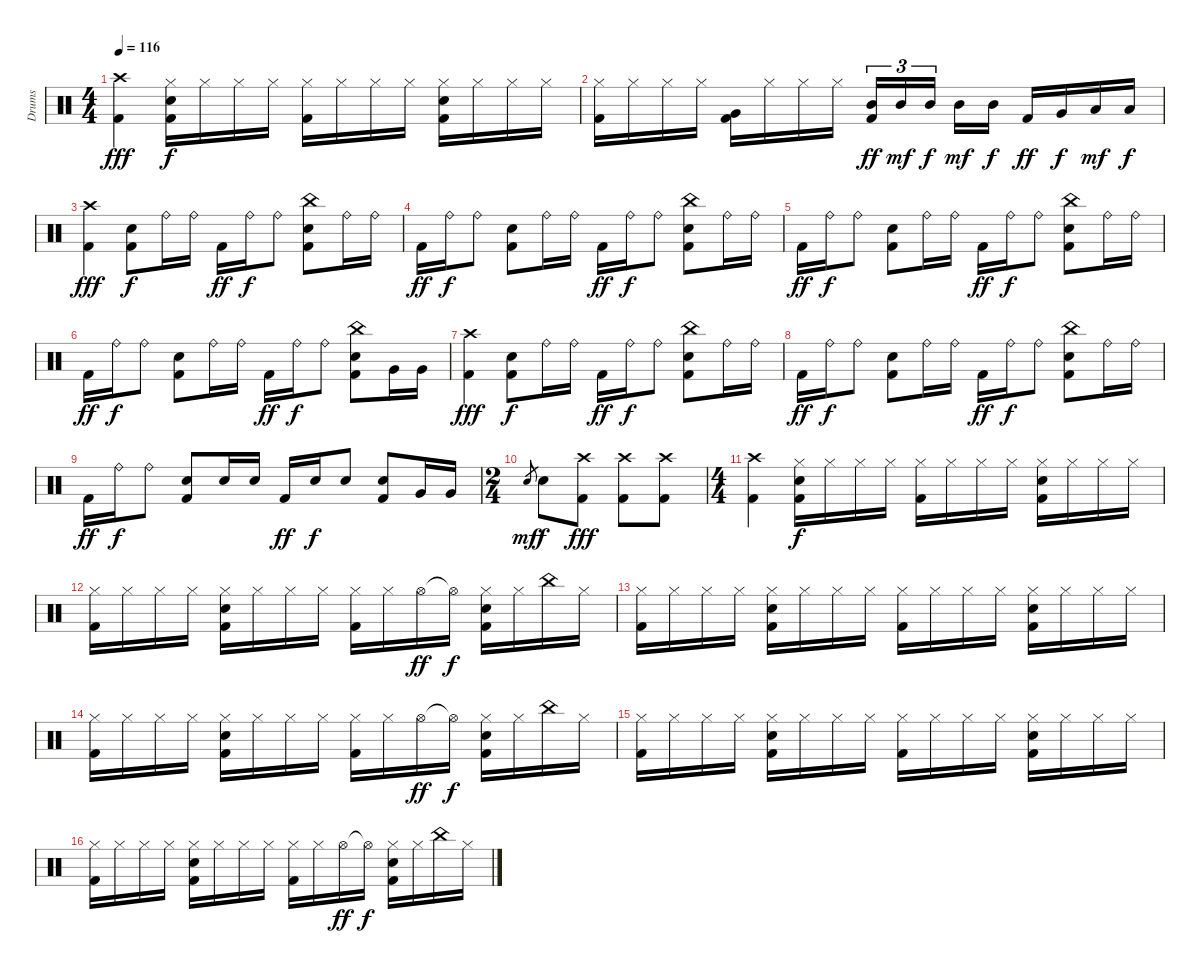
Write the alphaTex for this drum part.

\track ("Drums" "Drums") {instrument percussion}
\staff {score}
\articulation defaults
\ts (4 4)
\tempo 116
\clef neutral
\ks c
("Crash high (hit)" "Kick (hit) 2").4{dy fff} ("Hi-Hat (closed)" "Snare (hit) 2" "Kick (hit) 2").16{dy f} "Hi-Hat (closed)".16 "Hi-Hat (closed)".16 "Hi-Hat (closed)".16 ("Hi-Hat (closed)" "Kick (hit) 2").16 "Hi-Hat (closed)".16 "Hi-Hat (closed)".16 "Hi-Hat (closed)".16 ("Hi-Hat (closed)" "Snare (hit) 2" "Kick (hit) 2").16 "Hi-Hat (closed)".16 "Hi-Hat (closed)".16 "Hi-Hat (closed)".16 |
("Hi-Hat (closed)" "Kick (hit) 2").16 "Hi-Hat (closed)".16 "Hi-Hat (closed)".16 "Hi-Hat (closed)".16 ("Very Low Tom (hit)" "Kick (hit) 2").16 "Hi-Hat (closed)".16 "Hi-Hat (closed)".16 "Hi-Hat (closed)".16 ("Mid Tom (hit)" "Kick (hit) 2").16{tu (3 2) dy ff} "Mid Tom (hit)".16{tu (3 2) dy mf} "Mid Tom (hit)".16{tu (3 2) dy f} "Mid Tom (hit)".16{dy mf} "Mid Tom (hit)".16{dy f} "Kick (hit) 2".16{dy ff} "Very Low Tom (hit)".16{dy f} "Low Floor Tom (hit)".16{dy mf} "Low Floor Tom (hit)".16{dy f} |
("Crash high (hit)" "Kick (hit) 2").4{dy fff} ("Snare (hit) 2" "Kick (hit) 2").8{dy f} "Ride (bell)".16 "Ride (bell)".16 "Kick (hit) 2".16{dy ff} "Ride (bell)".16{dy f} "Ride (bell)".8 ("China (hit)" "Snare (hit) 2" "Kick (hit) 2").8 "Ride (bell)".16 "Ride (bell)".16 |
"Kick (hit) 2".16{dy ff} "Ride (bell)".16{dy f} "Ride (bell)".8 ("Snare (hit) 2" "Kick (hit) 2").8 "Ride (bell)".16 "Ride (bell)".16 "Kick (hit) 2".16{dy ff} "Ride (bell)".16{dy f} "Ride (bell)".8 ("China (hit)" "Snare (hit) 2" "Kick (hit) 2").8 "Ride (bell)".16 "Ride (bell)".16 |
"Kick (hit) 2".16{dy ff} "Ride (bell)".16{dy f} "Ride (bell)".8 ("Snare (hit) 2" "Kick (hit) 2").8 "Ride (bell)".16 "Ride (bell)".16 "Kick (hit) 2".16{dy ff} "Ride (bell)".16{dy f} "Ride (bell)".8 ("China (hit)" "Snare (hit) 2" "Kick (hit) 2").8 "Ride (bell)".16 "Ride (bell)".16 |
"Kick (hit) 2".16{dy ff} "Ride (bell)".16{dy f} "Ride (bell)".8 ("Snare (hit) 2" "Kick (hit) 2").8 "Ride (bell)".16 "Ride (bell)".16 "Kick (hit) 2".16{dy ff} "Ride (bell)".16{dy f} "Ride (bell)".8 ("China (hit)" "Snare (hit) 2" "Kick (hit) 2").8 "Very Low Tom (hit)".16 "Very Low Tom (hit)".16 |
("Crash high (hit)" "Kick (hit) 2").4{dy fff} ("Snare (hit) 2" "Kick (hit) 2").8{dy f} "Ride (bell)".16 "Ride (bell)".16 "Kick (hit) 2".16{dy ff} "Ride (bell)".16{dy f} "Ride (bell)".8 ("China (hit)" "Snare (hit) 2" "Kick (hit) 2").8 "Ride (bell)".16 "Ride (bell)".16 |
"Kick (hit) 2".16{dy ff} "Ride (bell)".16{dy f} "Ride (bell)".8 ("Snare (hit) 2" "Kick (hit) 2").8 "Ride (bell)".16 "Ride (bell)".16 "Kick (hit) 2".16{dy ff} "Ride (bell)".16{dy f} "Ride (bell)".8 ("China (hit)" "Snare (hit) 2" "Kick (hit) 2").8 "Ride (bell)".16 "Ride (bell)".16 |
"Kick (hit) 2".16{dy ff} "Ride (bell)".16{dy f} "Ride (bell)".8 ("Snare (hit) 2" "Kick (hit) 2").8 "Snare (hit) 2".16 "Snare (hit) 2".16 "Kick (hit) 2".16{dy ff} "Snare (hit) 2".16{dy f} "Snare (hit) 2".8 ("Snare (hit) 2" "Kick (hit) 2").8 "Very Low Tom (hit)".16 "Very Low Tom (hit)".16 |
\ts (2 4)
"Snare (hit)".8{gr dy mf} "Snare (hit) 2".8{dy f} ("Crash high (hit)" "Kick (hit) 2").8{dy fff} ("Crash high (hit)" "Kick (hit) 2").8 ("Crash high (hit)" "Kick (hit) 2").8 |
\ts (4 4)
("Crash high (hit)" "Kick (hit) 2").4 ("Hi-Hat (closed)" "Snare (hit) 2" "Kick (hit) 2").16{dy f} "Hi-Hat (closed)".16 "Hi-Hat (closed)".16 "Hi-Hat (closed)".16 ("Hi-Hat (closed)" "Kick (hit) 2").16 "Hi-Hat (closed)".16 "Hi-Hat (closed)".16 "Hi-Hat (closed)".16 ("Hi-Hat (closed)" "Snare (hit) 2" "Kick (hit) 2").16 "Hi-Hat (closed)".16 "Hi-Hat (closed)".16 "Hi-Hat (closed)".16 |
("Hi-Hat (closed)" "Kick (hit) 2").16 "Hi-Hat (closed)".16 "Hi-Hat (closed)".16 "Hi-Hat (closed)".16 ("Hi-Hat (closed)" "Snare (hit) 2" "Kick (hit) 2").16 "Hi-Hat (closed)".16 "Hi-Hat (closed)".16 "Hi-Hat (closed)".16 ("Hi-Hat (closed)" "Kick (hit) 2").16 "Hi-Hat (closed)".16 "Hi-Hat (open)".16{dy ff} "Hi-Hat (open)"{t}.16{dy f} ("Hi-Hat (closed)" "Snare (hit) 2" "Kick (hit) 2").16 "Hi-Hat (closed)".16 "China (hit)".16 "Hi-Hat (closed)".16 |
("Hi-Hat (closed)" "Kick (hit) 2").16 "Hi-Hat (closed)".16 "Hi-Hat (closed)".16 "Hi-Hat (closed)".16 ("Hi-Hat (closed)" "Snare (hit) 2" "Kick (hit) 2").16 "Hi-Hat (closed)".16 "Hi-Hat (closed)".16 "Hi-Hat (closed)".16 ("Hi-Hat (closed)" "Kick (hit) 2").16 "Hi-Hat (closed)".16 "Hi-Hat (closed)".16 "Hi-Hat (closed)".16 ("Hi-Hat (closed)" "Snare (hit) 2" "Kick (hit) 2").16 "Hi-Hat (closed)".16 "Hi-Hat (closed)".16 "Hi-Hat (closed)".16 |
("Hi-Hat (closed)" "Kick (hit) 2").16 "Hi-Hat (closed)".16 "Hi-Hat (closed)".16 "Hi-Hat (closed)".16 ("Hi-Hat (closed)" "Snare (hit) 2" "Kick (hit) 2").16 "Hi-Hat (closed)".16 "Hi-Hat (closed)".16 "Hi-Hat (closed)".16 ("Hi-Hat (closed)" "Kick (hit) 2").16 "Hi-Hat (closed)".16 "Hi-Hat (open)".16{dy ff} "Hi-Hat (open)"{t}.16{dy f} ("Hi-Hat (closed)" "Snare (hit) 2" "Kick (hit) 2").16 "Hi-Hat (closed)".16 "China (hit)".16 "Hi-Hat (closed)".16 |
("Hi-Hat (closed)" "Kick (hit) 2").16 "Hi-Hat (closed)".16 "Hi-Hat (closed)".16 "Hi-Hat (closed)".16 ("Hi-Hat (closed)" "Snare (hit) 2" "Kick (hit) 2").16 "Hi-Hat (closed)".16 "Hi-Hat (closed)".16 "Hi-Hat (closed)".16 ("Hi-Hat (closed)" "Kick (hit) 2").16 "Hi-Hat (closed)".16 "Hi-Hat (closed)".16 "Hi-Hat (closed)".16 ("Hi-Hat (closed)" "Snare (hit) 2" "Kick (hit) 2").16 "Hi-Hat (closed)".16 "Hi-Hat (closed)".16 "Hi-Hat (closed)".16 |
("Hi-Hat (closed)" "Kick (hit) 2").16 "Hi-Hat (closed)".16 "Hi-Hat (closed)".16 "Hi-Hat (closed)".16 ("Hi-Hat (closed)" "Snare (hit) 2" "Kick (hit) 2").16 "Hi-Hat (closed)".16 "Hi-Hat (closed)".16 "Hi-Hat (closed)".16 ("Hi-Hat (closed)" "Kick (hit) 2").16 "Hi-Hat (closed)".16 "Hi-Hat (open)".16{dy ff} "Hi-Hat (open)"{t}.16{dy f} ("Hi-Hat (closed)" "Snare (hit) 2" "Kick (hit) 2").16 "Hi-Hat (closed)".16 "China (hit)".16 "Hi-Hat (closed)".16
